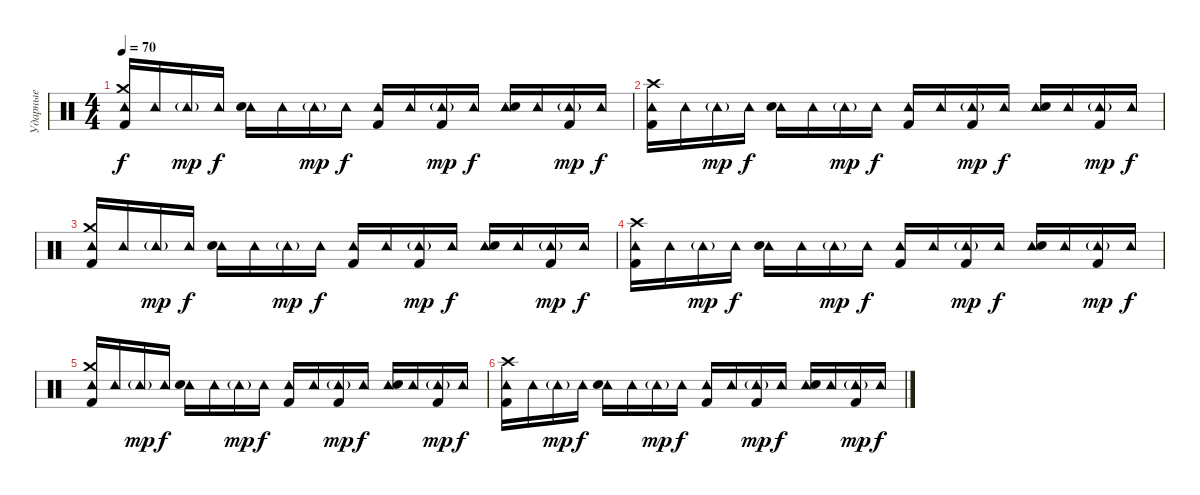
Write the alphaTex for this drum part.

\track ("Ударные" "Ударные") {instrument percussion}
\staff {score}
\articulation defaults
\ts (4 4)
\tempo 70
\clef neutral
\ks c
("Tambourine (hit)" "Crash medium (hit)" "Kick (hit) 2").16{dy f} "Tambourine (hit)".16 "Tambourine (hit)"{g}.16{dy mp} "Tambourine (hit)".16{dy f} ("Tambourine (hit)" "Snare (hit) 2").16 "Tambourine (hit)".16 "Tambourine (hit)"{g}.16{dy mp} "Tambourine (hit)".16{dy f} ("Tambourine (hit)" "Kick (hit) 2").16 "Tambourine (hit)".16 ("Tambourine (hit)"{g} "Kick (hit) 2").16{dy mp} "Tambourine (hit)".16{dy f} ("Tambourine (hit)" "Snare (hit) 2").16 "Tambourine (hit)".16 ("Tambourine (hit)"{g} "Kick (hit) 2").16{dy mp} "Tambourine (hit)".16{dy f} |
("Tambourine (hit)" "Crash high (hit)" "Kick (hit) 2").16 "Tambourine (hit)".16 "Tambourine (hit)"{g}.16{dy mp} "Tambourine (hit)".16{dy f} ("Tambourine (hit)" "Snare (hit) 2").16 "Tambourine (hit)".16 "Tambourine (hit)"{g}.16{dy mp} "Tambourine (hit)".16{dy f} ("Tambourine (hit)" "Kick (hit) 2").16 "Tambourine (hit)".16 ("Tambourine (hit)"{g} "Kick (hit) 2").16{dy mp} "Tambourine (hit)".16{dy f} ("Tambourine (hit)" "Snare (hit) 2").16 "Tambourine (hit)".16 ("Tambourine (hit)"{g} "Kick (hit) 2").16{dy mp} "Tambourine (hit)".16{dy f} |
("Tambourine (hit)" "Crash medium (hit)" "Kick (hit) 2").16 "Tambourine (hit)".16 "Tambourine (hit)"{g}.16{dy mp} "Tambourine (hit)".16{dy f} ("Tambourine (hit)" "Snare (hit) 2").16 "Tambourine (hit)".16 "Tambourine (hit)"{g}.16{dy mp} "Tambourine (hit)".16{dy f} ("Tambourine (hit)" "Kick (hit) 2").16 "Tambourine (hit)".16 ("Tambourine (hit)"{g} "Kick (hit) 2").16{dy mp} "Tambourine (hit)".16{dy f} ("Tambourine (hit)" "Snare (hit) 2").16 "Tambourine (hit)".16 ("Tambourine (hit)"{g} "Kick (hit) 2").16{dy mp} "Tambourine (hit)".16{dy f} |
("Tambourine (hit)" "Crash high (hit)" "Kick (hit) 2").16 "Tambourine (hit)".16 "Tambourine (hit)"{g}.16{dy mp} "Tambourine (hit)".16{dy f} ("Tambourine (hit)" "Snare (hit) 2").16 "Tambourine (hit)".16 "Tambourine (hit)"{g}.16{dy mp} "Tambourine (hit)".16{dy f} ("Tambourine (hit)" "Kick (hit) 2").16 "Tambourine (hit)".16 ("Tambourine (hit)"{g} "Kick (hit) 2").16{dy mp} "Tambourine (hit)".16{dy f} ("Tambourine (hit)" "Snare (hit) 2").16 "Tambourine (hit)".16 ("Tambourine (hit)"{g} "Kick (hit) 2").16{dy mp} "Tambourine (hit)".16{dy f} |
("Tambourine (hit)" "Crash medium (hit)" "Kick (hit) 2").16 "Tambourine (hit)".16 "Tambourine (hit)"{g}.16{dy mp} "Tambourine (hit)".16{dy f} ("Tambourine (hit)" "Snare (hit) 2").16 "Tambourine (hit)".16 "Tambourine (hit)"{g}.16{dy mp} "Tambourine (hit)".16{dy f} ("Tambourine (hit)" "Kick (hit) 2").16 "Tambourine (hit)".16 ("Tambourine (hit)"{g} "Kick (hit) 2").16{dy mp} "Tambourine (hit)".16{dy f} ("Tambourine (hit)" "Snare (hit) 2").16 "Tambourine (hit)".16 ("Tambourine (hit)"{g} "Kick (hit) 2").16{dy mp} "Tambourine (hit)".16{dy f} |
("Tambourine (hit)" "Crash high (hit)" "Kick (hit) 2").16 "Tambourine (hit)".16 "Tambourine (hit)"{g}.16{dy mp} "Tambourine (hit)".16{dy f} ("Tambourine (hit)" "Snare (hit) 2").16 "Tambourine (hit)".16 "Tambourine (hit)"{g}.16{dy mp} "Tambourine (hit)".16{dy f} ("Tambourine (hit)" "Kick (hit) 2").16 "Tambourine (hit)".16 ("Tambourine (hit)"{g} "Kick (hit) 2").16{dy mp} "Tambourine (hit)".16{dy f} ("Tambourine (hit)" "Snare (hit) 2").16 "Tambourine (hit)".16 ("Tambourine (hit)"{g} "Kick (hit) 2").16{dy mp} "Tambourine (hit)".16{dy f}
